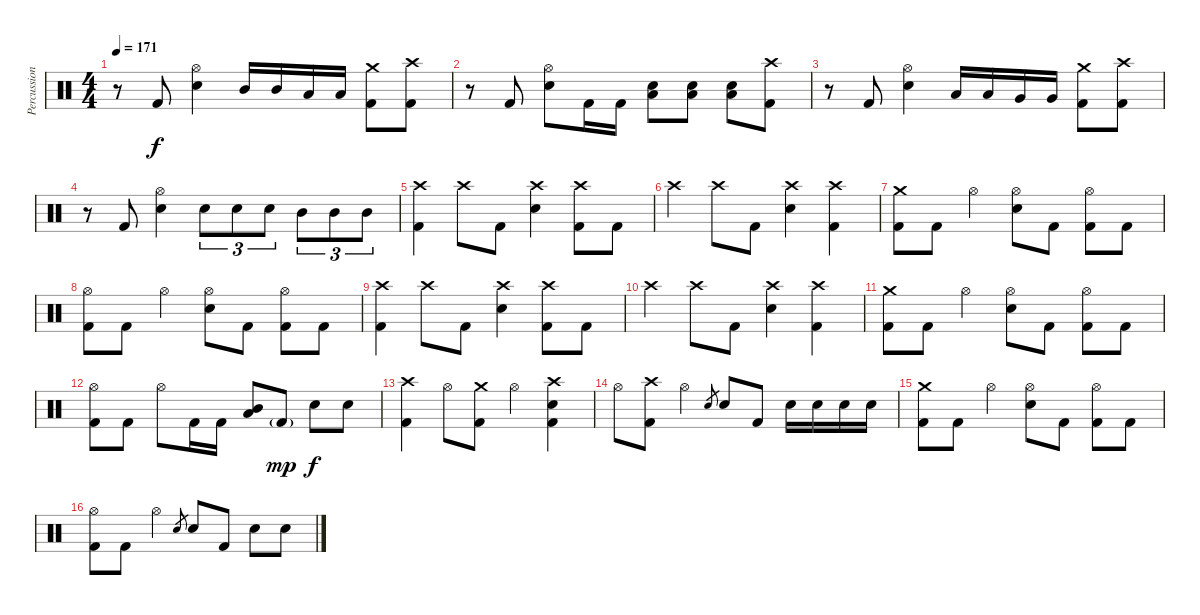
\track ("Percussion" "Percussion") {instrument percussion}
\staff {score}
\articulation defaults
\ts (4 4)
\tempo 171
\clef neutral
\ks c
r.8{dy f} "Kick (hit) 2".8 ("Hi-Hat (open)" "Electric Snare (hit)").4 "Mid Tom (hit)".16 "Mid Tom (hit)".16 "Low Tom (hit)".16 "Low Tom (hit)".16 ("Crash medium (hit)" "Kick (hit) 2").8 ("Crash high (hit)" "Kick (hit) 2").8 |
r.8 "Kick (hit) 2".8 ("Hi-Hat (open)" "Electric Snare (hit)").8 "Kick (hit) 2".16 "Kick (hit) 2".16 ("Electric Snare (hit)" "Low Tom (hit)").8 ("Electric Snare (hit)" "Low Tom (hit)").8 ("Electric Snare (hit)" "Low Tom (hit)").8 ("Crash high (hit)" "Kick (hit) 2").8 |
r.8 "Kick (hit) 2".8 ("Hi-Hat (open)" "Electric Snare (hit)").4 "Low Tom (hit)".16 "Low Tom (hit)".16 "Very Low Tom (hit)".16 "Very Low Tom (hit)".16 ("Crash medium (hit)" "Kick (hit) 2").8 ("Crash high (hit)" "Kick (hit) 2").8 |
r.8 "Kick (hit) 2".8 ("Hi-Hat (open)" "Electric Snare (hit)").4 "Electric Snare (hit)".8{tu (3 2)} "Electric Snare (hit)".8{tu (3 2)} "Electric Snare (hit)".8{tu (3 2)} "Mid Tom (hit)".8{tu (3 2)} "Mid Tom (hit)".8{tu (3 2)} "Mid Tom (hit)".8{tu (3 2)} |
("Crash high (hit)" "Kick (hit) 2").4 "Crash high (hit)".8 "Kick (hit) 2".8 ("Crash high (hit)" "Electric Snare (hit)").4 ("Crash high (hit)" "Kick (hit) 2").8 "Kick (hit) 2".8 |
"Crash high (hit)".4 "Crash high (hit)".8 "Kick (hit) 2".8 ("Crash high (hit)" "Electric Snare (hit)").4 ("Crash high (hit)" "Kick (hit) 2").4 |
("Crash medium (hit)" "Kick (hit) 2").8 "Kick (hit) 2".8 "Hi-Hat (open)".4 ("Hi-Hat (open)" "Electric Snare (hit)").8 "Kick (hit) 2".8 ("Hi-Hat (open)" "Kick (hit) 2").8 "Kick (hit) 2".8 |
("Hi-Hat (open)" "Kick (hit) 2").8 "Kick (hit) 2".8 "Hi-Hat (open)".4 ("Hi-Hat (open)" "Electric Snare (hit)").8 "Kick (hit) 2".8 ("Hi-Hat (open)" "Kick (hit) 2").8 "Kick (hit) 2".8 |
("Crash high (hit)" "Kick (hit) 2").4 "Crash high (hit)".8 "Kick (hit) 2".8 ("Crash high (hit)" "Electric Snare (hit)").4 ("Crash high (hit)" "Kick (hit) 2").8 "Kick (hit) 2".8 |
"Crash high (hit)".4 "Crash high (hit)".8 "Kick (hit) 2".8 ("Crash high (hit)" "Electric Snare (hit)").4 ("Crash high (hit)" "Kick (hit) 2").4 |
("Crash medium (hit)" "Kick (hit) 2").8 "Kick (hit) 2".8 "Hi-Hat (open)".4 ("Hi-Hat (open)" "Electric Snare (hit)").8 "Kick (hit) 2".8 ("Hi-Hat (open)" "Kick (hit) 2").8 "Kick (hit) 2".8 |
("Hi-Hat (open)" "Kick (hit) 2").8 "Kick (hit) 2".8 "Hi-Hat (open)".8 "Kick (hit) 2".16 "Kick (hit) 2".16 ("Mid Tom (hit)" "Low Tom (hit)").8 "Kick (hit) 2"{g}.8{dy mp} "Electric Snare (hit)".8{dy f} "Electric Snare (hit)".8 |
("Crash high (hit)" "Kick (hit) 2").4 "Hi-Hat (open)".8 ("Crash medium (hit)" "Kick (hit) 2").8 "Hi-Hat (open)".4 ("Crash high (hit)" "Electric Snare (hit)" "Kick (hit) 2").4 |
"Hi-Hat (open)".8 ("Crash high (hit)" "Kick (hit) 2").8 "Hi-Hat (open)".4 "Electric Snare (hit)".8{gr} "Electric Snare (hit)".8 "Kick (hit) 2".8 "Electric Snare (hit)".16 "Electric Snare (hit)".16 "Electric Snare (hit)".16 "Electric Snare (hit)".16 |
("Crash medium (hit)" "Kick (hit) 2").8 "Kick (hit) 2".8 "Hi-Hat (open)".4 ("Hi-Hat (open)" "Electric Snare (hit)").8 "Kick (hit) 2".8 ("Hi-Hat (open)" "Kick (hit) 2").8 "Kick (hit) 2".8 |
("Hi-Hat (open)" "Kick (hit) 2").8 "Kick (hit) 2".8 "Hi-Hat (open)".4 "Electric Snare (hit)".8{gr} "Electric Snare (hit)".8 "Kick (hit) 2".8 "Electric Snare (hit)".8 "Electric Snare (hit)".8
